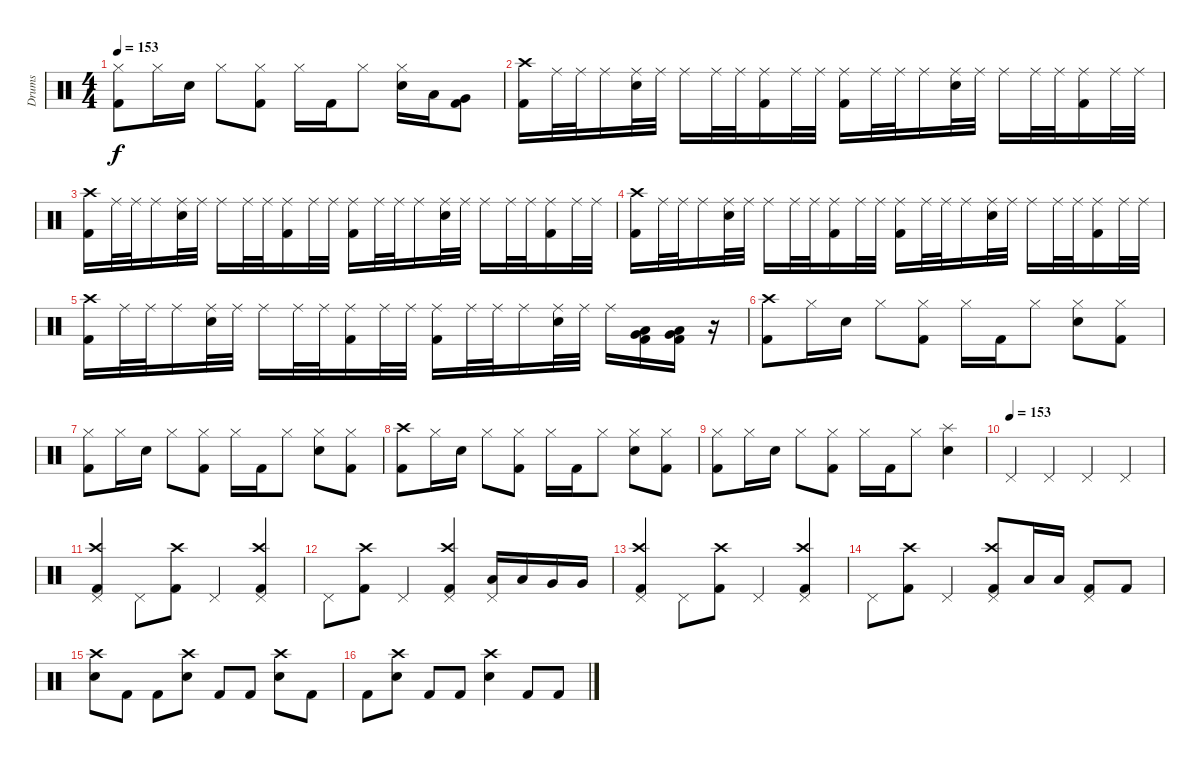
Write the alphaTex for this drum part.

\track ("Drums" "Drums") {instrument percussion}
\staff {score}
\articulation defaults
\ts (4 4)
\tempo 153
\clef neutral
\ks c
("Hi-Hat (closed)" "Kick (hit) 2").8{dy f} "Hi-Hat (closed)".16 "Electric Snare (hit)".16 "Hi-Hat (closed)".8 ("Hi-Hat (closed)" "Kick (hit) 2").8 "Hi-Hat (closed)".16 "Kick (hit) 2".16 "Hi-Hat (closed)".8 ("Hi-Hat (closed)" "Electric Snare (hit)").16 "Low Tom (hit)".16 ("Very Low Tom (hit)" "Kick (hit) 2").8 |
("Crash high (hit)" "Kick (hit) 2").16 "Ride (middle)".32 "Ride (middle)".32 "Ride (middle)".16 ("Ride (middle)" "Electric Snare (hit)").32 "Ride (middle)".32 "Ride (middle)".16 "Ride (middle)".32 "Ride (middle)".32 ("Ride (middle)" "Kick (hit) 2").16 "Ride (middle)".32 "Ride (middle)".32 ("Ride (middle)" "Kick (hit) 2").16 "Ride (middle)".32 "Ride (middle)".32 "Ride (middle)".16 ("Ride (middle)" "Electric Snare (hit)").32 "Ride (middle)".32 "Ride (middle)".16 "Ride (middle)".32 "Ride (middle)".32 ("Ride (middle)" "Kick (hit) 2").16 "Ride (middle)".32 "Ride (middle)".32 |
("Crash high (hit)" "Kick (hit) 2").16 "Ride (middle)".32 "Ride (middle)".32 "Ride (middle)".16 ("Ride (middle)" "Electric Snare (hit)").32 "Ride (middle)".32 "Ride (middle)".16 "Ride (middle)".32 "Ride (middle)".32 ("Ride (middle)" "Kick (hit) 2").16 "Ride (middle)".32 "Ride (middle)".32 ("Ride (middle)" "Kick (hit) 2").16 "Ride (middle)".32 "Ride (middle)".32 "Ride (middle)".16 ("Ride (middle)" "Electric Snare (hit)").32 "Ride (middle)".32 "Ride (middle)".16 "Ride (middle)".32 "Ride (middle)".32 ("Ride (middle)" "Kick (hit) 2").16 "Ride (middle)".32 "Ride (middle)".32 |
("Crash high (hit)" "Kick (hit) 2").16 "Ride (middle)".32 "Ride (middle)".32 "Ride (middle)".16 ("Ride (middle)" "Electric Snare (hit)").32 "Ride (middle)".32 "Ride (middle)".16 "Ride (middle)".32 "Ride (middle)".32 ("Ride (middle)" "Kick (hit) 2").16 "Ride (middle)".32 "Ride (middle)".32 ("Ride (middle)" "Kick (hit) 2").16 "Ride (middle)".32 "Ride (middle)".32 "Ride (middle)".16 ("Ride (middle)" "Electric Snare (hit)").32 "Ride (middle)".32 "Ride (middle)".16 "Ride (middle)".32 "Ride (middle)".32 ("Ride (middle)" "Kick (hit) 2").16 "Ride (middle)".32 "Ride (middle)".32 |
("Crash high (hit)" "Kick (hit) 2").16 "Ride (middle)".32 "Ride (middle)".32 "Ride (middle)".16 ("Ride (middle)" "Electric Snare (hit)").32 "Ride (middle)".32 "Ride (middle)".16 "Ride (middle)".32 "Ride (middle)".32 ("Ride (middle)" "Kick (hit) 2").16 "Ride (middle)".32 "Ride (middle)".32 ("Ride (middle)" "Kick (hit) 2").16 "Ride (middle)".32 "Ride (middle)".32 "Ride (middle)".16 ("Ride (middle)" "Electric Snare (hit)").32 "Ride (middle)".32 "Ride (middle)".16 ("Very Low Tom (hit)" "Low Tom (hit)" "Kick (hit) 2").16 ("Very Low Tom (hit)" "Low Tom (hit)" "Kick (hit) 2").16 r.16 |
("Crash high (hit)" "Kick (hit) 2").8 "Hi-Hat (closed)".16 "Electric Snare (hit)".16 "Hi-Hat (closed)".8 ("Hi-Hat (closed)" "Kick (hit) 2").8 "Hi-Hat (closed)".16 "Kick (hit) 2".16 "Hi-Hat (closed)".8 ("Hi-Hat (closed)" "Electric Snare (hit)").8 ("Hi-Hat (closed)" "Kick (hit) 2").8 |
("Hi-Hat (closed)" "Kick (hit) 2").8 "Hi-Hat (closed)".16 "Electric Snare (hit)".16 "Hi-Hat (closed)".8 ("Hi-Hat (closed)" "Kick (hit) 2").8 "Hi-Hat (closed)".16 "Kick (hit) 2".16 "Hi-Hat (closed)".8 ("Hi-Hat (closed)" "Electric Snare (hit)").8 ("Hi-Hat (closed)" "Kick (hit) 2").8 |
("Crash high (hit)" "Kick (hit) 2").8 "Hi-Hat (closed)".16 "Electric Snare (hit)".16 "Hi-Hat (closed)".8 ("Hi-Hat (closed)" "Kick (hit) 2").8 "Hi-Hat (closed)".16 "Kick (hit) 2".16 "Hi-Hat (closed)".8 ("Hi-Hat (closed)" "Electric Snare (hit)").8 ("Hi-Hat (closed)" "Kick (hit) 2").8 |
("Hi-Hat (closed)" "Kick (hit) 2").8 "Hi-Hat (closed)".16 "Electric Snare (hit)".16 "Hi-Hat (closed)".8 ("Hi-Hat (closed)" "Kick (hit) 2").8 "Hi-Hat (closed)".16 "Kick (hit) 2".16 "Hi-Hat (closed)".8 ("Splash (hit)" "Electric Snare (hit)").4 |
\tempo (153)
"Pedal Hi-Hat (hit)".4 "Pedal Hi-Hat (hit)".4 "Pedal Hi-Hat (hit)".4 "Pedal Hi-Hat (hit)".4 |
("Crash high (hit)" "Pedal Hi-Hat (hit)" "Kick (hit) 2").4 "Pedal Hi-Hat (hit)".8 ("Crash high (hit)" "Kick (hit) 2").8 "Pedal Hi-Hat (hit)".4 ("Crash high (hit)" "Pedal Hi-Hat (hit)" "Kick (hit) 2").4 |
"Pedal Hi-Hat (hit)".8 ("Crash high (hit)" "Kick (hit) 2").8 "Pedal Hi-Hat (hit)".4 ("Crash high (hit)" "Pedal Hi-Hat (hit)" "Kick (hit) 2").4 ("Pedal Hi-Hat (hit)" "Low Tom (hit)").16 "Low Tom (hit)".16 "Very Low Tom (hit)".16 "Very Low Tom (hit)".16 |
("Crash high (hit)" "Pedal Hi-Hat (hit)" "Kick (hit) 2").4 "Pedal Hi-Hat (hit)".8 ("Crash high (hit)" "Kick (hit) 2").8 "Pedal Hi-Hat (hit)".4 ("Crash high (hit)" "Pedal Hi-Hat (hit)" "Kick (hit) 2").4 |
"Pedal Hi-Hat (hit)".8 ("Crash high (hit)" "Kick (hit) 2").8 "Pedal Hi-Hat (hit)".4 ("Crash high (hit)" "Pedal Hi-Hat (hit)" "Kick (hit) 2").8 "Low Tom (hit)".16 "Low Tom (hit)".16 ("Pedal Hi-Hat (hit)" "Kick (hit) 2").8 "Kick (hit) 2".8 |
("Crash high (hit)" "Electric Snare (hit)").8 "Kick (hit) 2".8 "Kick (hit) 2".8 ("Crash high (hit)" "Electric Snare (hit)").8 "Kick (hit) 2".8 "Kick (hit) 2".8 ("Crash high (hit)" "Electric Snare (hit)").8 "Kick (hit) 2".8 |
"Kick (hit) 2".8 ("Crash high (hit)" "Electric Snare (hit)").8 "Kick (hit) 2".8 "Kick (hit) 2".8 ("Crash high (hit)" "Electric Snare (hit)").4 "Kick (hit) 2".8 "Kick (hit) 2".8
